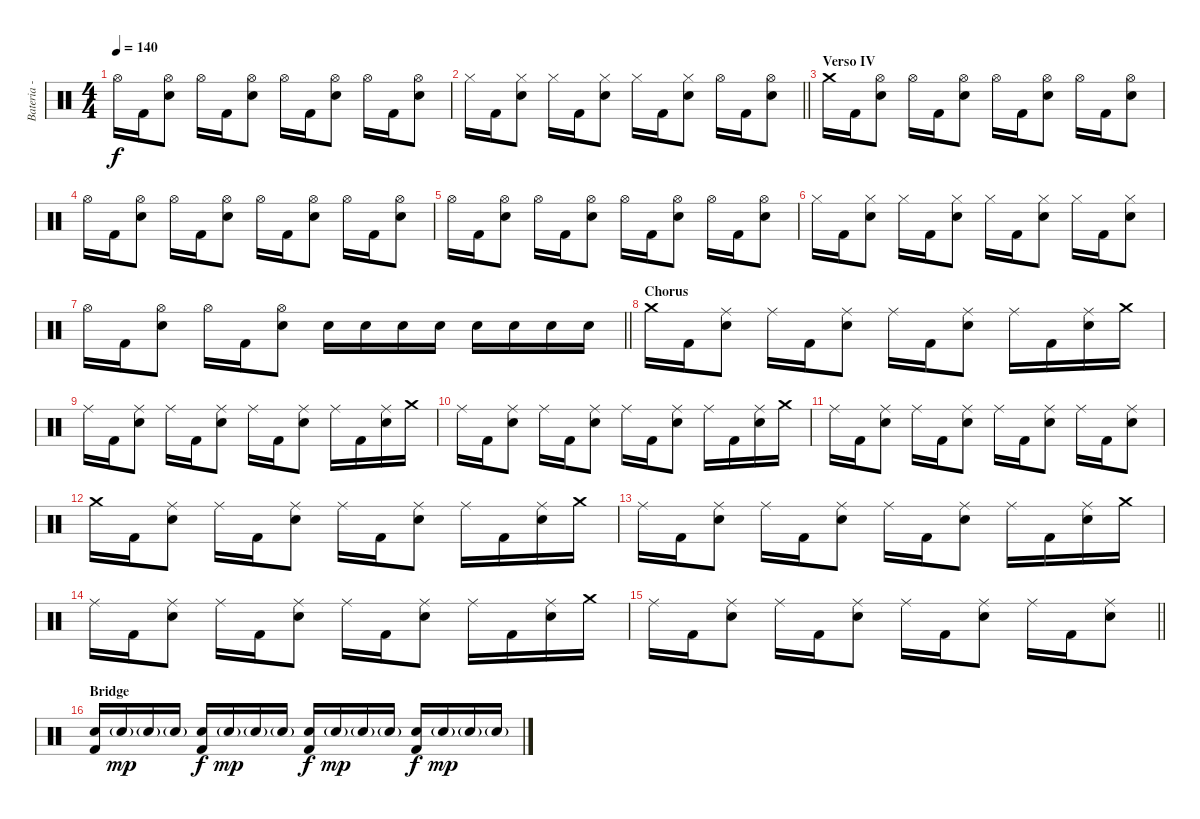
\track ("Bateria - Larzon" "Bateria - ") {instrument percussion}
\staff {score}
\articulation defaults
\ts (4 4)
\tempo 140
\clef neutral
\ks c "Hi-Hat (open)".16{dy f} "Kick (hit) 2".16
("Electric Snare (hit)" "Hi-Hat (open)").8 "Hi-Hat (open)".16 "Kick (hit) 2".16 ("Electric Snare (hit)" "Hi-Hat (open)").8 "Hi-Hat (open)".16 "Kick (hit) 2".16 ("Electric Snare (hit)" "Hi-Hat (open)").8 "Hi-Hat (open)".16 "Kick (hit) 2".16 ("Electric Snare (hit)" "Hi-Hat (open)").8 |
\barLineRight lightlight "Hi-Hat (closed)".16 "Kick (hit) 2".16
("Electric Snare (hit)" "Hi-Hat (closed)").8 "Hi-Hat (closed)".16 "Kick (hit) 2".16 ("Electric Snare (hit)" "Hi-Hat (closed)").8 "Hi-Hat (closed)".16 "Kick (hit) 2".16 ("Electric Snare (hit)" "Hi-Hat (closed)").8 "Hi-Hat (open)".16 "Kick (hit) 2".16 ("Electric Snare (hit)" "Hi-Hat (open)").8 |
\section ("" "Verso IV")
"Crash medium (hit)".16 "Kick (hit) 2".16 ("Electric Snare (hit)" "Hi-Hat (open)").8 "Hi-Hat (open)".16 "Kick (hit) 2".16 ("Electric Snare (hit)" "Hi-Hat (open)").8 "Hi-Hat (open)".16 "Kick (hit) 2".16 ("Electric Snare (hit)" "Hi-Hat (open)").8 "Hi-Hat (open)".16 "Kick (hit) 2".16 ("Electric Snare (hit)" "Hi-Hat (open)").8 |
"Hi-Hat (open)".16 "Kick (hit) 2".16 ("Electric Snare (hit)" "Hi-Hat (open)").8 "Hi-Hat (open)".16 "Kick (hit) 2".16 ("Electric Snare (hit)" "Hi-Hat (open)").8 "Hi-Hat (open)".16 "Kick (hit) 2".16 ("Electric Snare (hit)" "Hi-Hat (open)").8 "Hi-Hat (open)".16 "Kick (hit) 2".16 ("Electric Snare (hit)" "Hi-Hat (open)").8 |
"Hi-Hat (open)".16 "Kick (hit) 2".16 ("Electric Snare (hit)" "Hi-Hat (open)").8 "Hi-Hat (open)".16 "Kick (hit) 2".16 ("Electric Snare (hit)" "Hi-Hat (open)").8 "Hi-Hat (open)".16 "Kick (hit) 2".16 ("Electric Snare (hit)" "Hi-Hat (open)").8 "Hi-Hat (open)".16 "Kick (hit) 2".16 ("Electric Snare (hit)" "Hi-Hat (open)").8 |
"Hi-Hat (closed)".16 "Kick (hit) 2".16 ("Electric Snare (hit)" "Hi-Hat (closed)").8 "Hi-Hat (closed)".16 "Kick (hit) 2".16 ("Electric Snare (hit)" "Hi-Hat (closed)").8 "Hi-Hat (closed)".16 "Kick (hit) 2".16 ("Electric Snare (hit)" "Hi-Hat (closed)").8 "Hi-Hat (closed)".16 "Kick (hit) 2".16 ("Electric Snare (hit)" "Hi-Hat (closed)").8 |
\barLineRight lightlight "Hi-Hat (open)".16 "Kick (hit) 2".16
("Electric Snare (hit)" "Hi-Hat (open)").8 "Hi-Hat (open)".16 "Kick (hit) 2".16 ("Electric Snare (hit)" "Hi-Hat (open)").8 "Electric Snare (hit)".16 "Electric Snare (hit)".16 "Electric Snare (hit)".16 "Electric Snare (hit)".16 "Electric Snare (hit)".16 "Electric Snare (hit)".16 "Electric Snare (hit)".16 "Electric Snare (hit)".16 |
\section ("" "Chorus")
"Crash medium (hit)".16 "Kick (hit) 2".16 ("Electric Snare (hit)" "Ride (middle)").8 "Ride (middle)".16 "Kick (hit) 2".16 ("Electric Snare (hit)" "Ride (middle)").8 "Ride (middle)".16 "Kick (hit) 2".16 ("Electric Snare (hit)" "Ride (middle)").8 "Ride (middle)".16 "Kick (hit) 2".16 ("Electric Snare (hit)" "Ride (middle)").16 "Crash medium (hit)".16 |
"Ride (middle)".16 "Kick (hit) 2".16 ("Electric Snare (hit)" "Ride (middle)").8 "Ride (middle)".16 "Kick (hit) 2".16 ("Electric Snare (hit)" "Ride (middle)").8 "Ride (middle)".16 "Kick (hit) 2".16 ("Electric Snare (hit)" "Ride (middle)").8 "Ride (middle)".16 "Kick (hit) 2".16 ("Electric Snare (hit)" "Ride (middle)").16 "Crash medium (hit)".16 |
"Ride (middle)".16 "Kick (hit) 2".16 ("Electric Snare (hit)" "Ride (middle)").8 "Ride (middle)".16 "Kick (hit) 2".16 ("Electric Snare (hit)" "Ride (middle)").8 "Ride (middle)".16 "Kick (hit) 2".16 ("Electric Snare (hit)" "Ride (middle)").8 "Ride (middle)".16 "Kick (hit) 2".16 ("Electric Snare (hit)" "Ride (middle)").16 "Crash medium (hit)".16 |
"Ride (middle)".16 "Kick (hit) 2".16 ("Electric Snare (hit)" "Ride (middle)").8 "Ride (middle)".16 "Kick (hit) 2".16 ("Electric Snare (hit)" "Ride (middle)").8 "Ride (middle)".16 "Kick (hit) 2".16 ("Electric Snare (hit)" "Ride (middle)").8 "Ride (middle)".16 "Kick (hit) 2".16 ("Electric Snare (hit)" "Ride (middle)").8 |
"Crash medium (hit)".16 "Kick (hit) 2".16 ("Electric Snare (hit)" "Ride (middle)").8 "Ride (middle)".16 "Kick (hit) 2".16 ("Electric Snare (hit)" "Ride (middle)").8 "Ride (middle)".16 "Kick (hit) 2".16 ("Electric Snare (hit)" "Ride (middle)").8 "Ride (middle)".16 "Kick (hit) 2".16 ("Electric Snare (hit)" "Ride (middle)").16 "Crash medium (hit)".16 |
"Ride (middle)".16 "Kick (hit) 2".16 ("Electric Snare (hit)" "Ride (middle)").8 "Ride (middle)".16 "Kick (hit) 2".16 ("Electric Snare (hit)" "Ride (middle)").8 "Ride (middle)".16 "Kick (hit) 2".16 ("Electric Snare (hit)" "Ride (middle)").8 "Ride (middle)".16 "Kick (hit) 2".16 ("Electric Snare (hit)" "Ride (middle)").16 "Crash medium (hit)".16 |
"Ride (middle)".16 "Kick (hit) 2".16 ("Electric Snare (hit)" "Ride (middle)").8 "Ride (middle)".16 "Kick (hit) 2".16 ("Electric Snare (hit)" "Ride (middle)").8 "Ride (middle)".16 "Kick (hit) 2".16 ("Electric Snare (hit)" "Ride (middle)").8 "Ride (middle)".16 "Kick (hit) 2".16 ("Electric Snare (hit)" "Ride (middle)").16 "Crash medium (hit)".16 |
\barLineRight lightlight "Ride (middle)".16 "Kick (hit) 2".16
("Electric Snare (hit)" "Ride (middle)").8 "Ride (middle)".16 "Kick (hit) 2".16 ("Electric Snare (hit)" "Ride (middle)").8 "Ride (middle)".16 "Kick (hit) 2".16 ("Electric Snare (hit)" "Ride (middle)").8 "Ride (middle)".16 "Kick (hit) 2".16 ("Electric Snare (hit)" "Ride (middle)").8 |
\section ("" "Bridge")
("Electric Snare (hit)" "Kick (hit) 2").16 "Electric Snare (hit)"{g}.16{dy mp} "Electric Snare (hit)"{g}.16 "Electric Snare (hit)"{g}.16 ("Electric Snare (hit)" "Kick (hit) 2").16{dy f} "Electric Snare (hit)"{g}.16{dy mp} "Electric Snare (hit)"{g}.16 "Electric Snare (hit)"{g}.16 ("Electric Snare (hit)" "Kick (hit) 2").16{dy f} "Electric Snare (hit)"{g}.16{dy mp} "Electric Snare (hit)"{g}.16 "Electric Snare (hit)"{g}.16 ("Electric Snare (hit)" "Kick (hit) 2").16{dy f} "Electric Snare (hit)"{g}.16{dy mp} "Electric Snare (hit)"{g}.16 "Electric Snare (hit)"{g}.16
